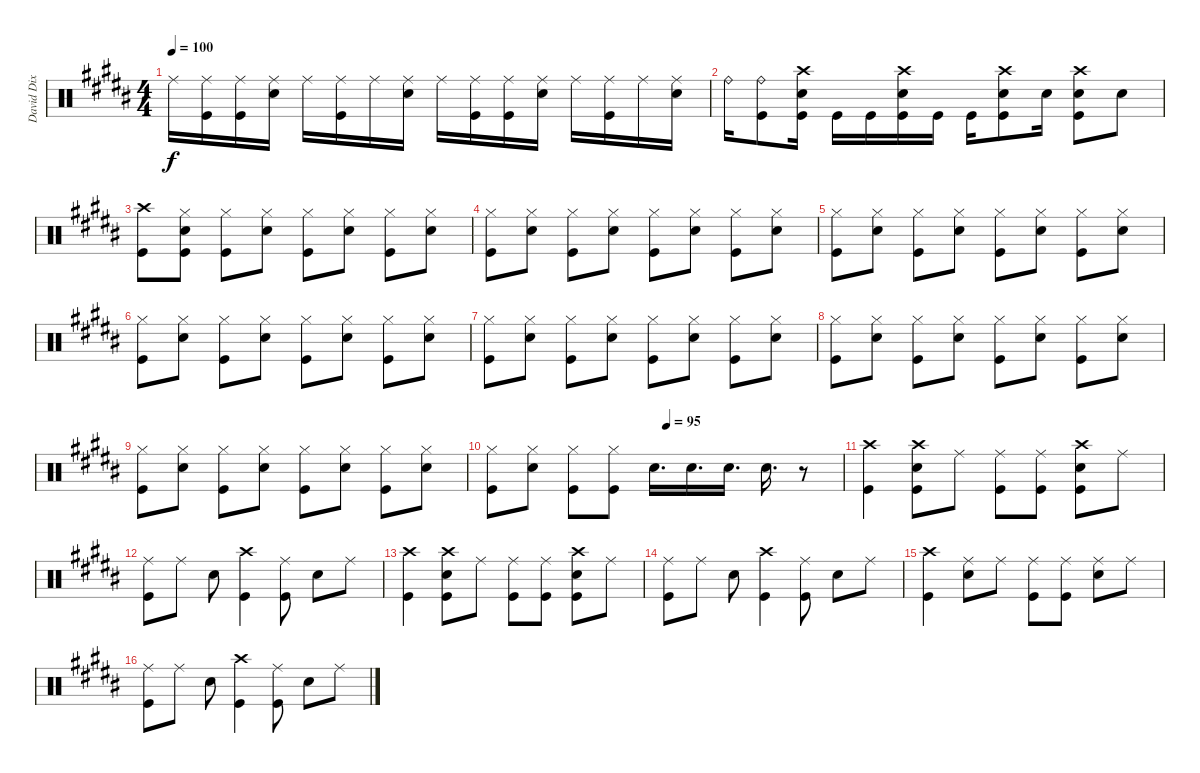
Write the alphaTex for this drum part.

\track ("David Dix Drums" "David Dix ") {instrument percussion}
\staff {score}
\articulation defaults
\ts (4 4)
\tempo 100
\clef neutral
\ks g#minor "Ride (middle)".16{dy f}
("Ride (middle)" "Kick (hit)").16 ("Ride (middle)" "Kick (hit)").16 ("Ride (middle)" "Snare (hit) 2").16 "Ride (middle)".16 ("Ride (middle)" "Kick (hit)").16 "Ride (middle)".16 ("Ride (middle)" "Snare (hit) 2").16 "Ride (middle)".16 ("Ride (middle)" "Kick (hit)").16 ("Ride (middle)" "Kick (hit)").16 ("Ride (middle)" "Snare (hit) 2").16 "Ride (middle)".16 ("Ride (middle)" "Kick (hit)").16 "Ride (middle)".16 ("Ride (middle)" "Snare (hit) 2").16 |
"Ride (bell)".16 ("Ride (bell)" "Kick (hit)").8 ("Crash high (hit)" "Snare (hit) 2" "Kick (hit)").16 "Kick (hit)".16 "Kick (hit)".16 ("Crash high (hit)" "Snare (hit) 2" "Kick (hit)").16 "Kick (hit)".16 "Kick (hit)".16 ("Crash high (hit)" "Snare (hit) 2" "Kick (hit)").8 "Snare (hit) 2".16 ("Crash high (hit)" "Snare (hit) 2" "Kick (hit)").8 "Snare (hit) 2".8 |
("Crash high (hit)" "Kick (hit)").8 ("Hi-Hat (closed)" "Snare (hit) 2" "Kick (hit)").8 ("Hi-Hat (closed)" "Kick (hit)").8 ("Hi-Hat (closed)" "Snare (hit) 2").8 ("Hi-Hat (closed)" "Kick (hit)").8 ("Hi-Hat (closed)" "Snare (hit) 2").8 ("Hi-Hat (closed)" "Kick (hit)").8 ("Hi-Hat (closed)" "Snare (hit) 2").8 |
("Hi-Hat (closed)" "Kick (hit)").8 ("Hi-Hat (closed)" "Snare (hit) 2").8 ("Hi-Hat (closed)" "Kick (hit)").8 ("Hi-Hat (closed)" "Snare (hit) 2").8 ("Hi-Hat (closed)" "Kick (hit)").8 ("Hi-Hat (closed)" "Snare (hit) 2").8 ("Hi-Hat (closed)" "Kick (hit)").8 ("Hi-Hat (closed)" "Snare (hit) 2").8 |
("Hi-Hat (closed)" "Kick (hit)").8 ("Hi-Hat (closed)" "Snare (hit) 2").8 ("Hi-Hat (closed)" "Kick (hit)").8 ("Hi-Hat (closed)" "Snare (hit) 2").8 ("Hi-Hat (closed)" "Kick (hit)").8 ("Hi-Hat (closed)" "Snare (hit) 2").8 ("Hi-Hat (closed)" "Kick (hit)").8 ("Hi-Hat (closed)" "Snare (hit) 2").8 |
("Hi-Hat (closed)" "Kick (hit)").8 ("Hi-Hat (closed)" "Snare (hit) 2").8 ("Hi-Hat (closed)" "Kick (hit)").8 ("Hi-Hat (closed)" "Snare (hit) 2").8 ("Hi-Hat (closed)" "Kick (hit)").8 ("Hi-Hat (closed)" "Snare (hit) 2").8 ("Hi-Hat (closed)" "Kick (hit)").8 ("Hi-Hat (closed)" "Snare (hit) 2").8 |
("Hi-Hat (closed)" "Kick (hit)").8 ("Hi-Hat (closed)" "Snare (hit) 2").8 ("Hi-Hat (closed)" "Kick (hit)").8 ("Hi-Hat (closed)" "Snare (hit) 2").8 ("Hi-Hat (closed)" "Kick (hit)").8 ("Hi-Hat (closed)" "Snare (hit) 2").8 ("Hi-Hat (closed)" "Kick (hit)").8 ("Hi-Hat (closed)" "Snare (hit) 2").8 |
("Hi-Hat (closed)" "Kick (hit)").8 ("Hi-Hat (closed)" "Snare (hit) 2").8 ("Hi-Hat (closed)" "Kick (hit)").8 ("Hi-Hat (closed)" "Snare (hit) 2").8 ("Hi-Hat (closed)" "Kick (hit)").8 ("Hi-Hat (closed)" "Snare (hit) 2").8 ("Hi-Hat (closed)" "Kick (hit)").8 ("Hi-Hat (closed)" "Snare (hit) 2").8 |
("Hi-Hat (closed)" "Kick (hit)").8 ("Hi-Hat (closed)" "Snare (hit) 2").8 ("Hi-Hat (closed)" "Kick (hit)").8 ("Hi-Hat (closed)" "Snare (hit) 2").8 ("Hi-Hat (closed)" "Kick (hit)").8 ("Hi-Hat (closed)" "Snare (hit) 2").8 ("Hi-Hat (closed)" "Kick (hit)").8 ("Hi-Hat (closed)" "Snare (hit) 2").8 |
\tempo (95 0.5)
("Hi-Hat (closed)" "Kick (hit)").8 ("Hi-Hat (closed)" "Snare (hit) 2").8 ("Hi-Hat (closed)" "Kick (hit)").8 ("Hi-Hat (closed)" "Kick (hit)").8 "Snare (hit) 2".16{d} "Snare (hit) 2".16{d} "Snare (hit) 2".16{d} "Snare (hit) 2".16{d} r.8 |
("Crash high (hit)" "Kick (hit)").4{volume 13} ("Crash high (hit)" "Snare (hit) 2" "Kick (hit)").8 "Ride (middle)".8 ("Ride (middle)" "Kick (hit)").8 ("Ride (middle)" "Kick (hit)").8 ("Crash high (hit)" "Snare (hit) 2" "Kick (hit)").8 "Ride (middle)".8 |
("Ride (middle)" "Kick (hit)").8 "Ride (middle)".8 "Snare (hit) 2".8 ("Crash high (hit)" "Kick (hit)").4 ("Ride (middle)" "Kick (hit)").8 "Snare (hit) 2".8 "Ride (middle)".8 |
("Crash high (hit)" "Kick (hit)").4 ("Crash high (hit)" "Snare (hit) 2" "Kick (hit)").8 "Ride (middle)".8 ("Ride (middle)" "Kick (hit)").8 ("Ride (middle)" "Kick (hit)").8 ("Crash high (hit)" "Snare (hit) 2" "Kick (hit)").8 "Ride (middle)".8 |
("Ride (middle)" "Kick (hit)").8 "Ride (middle)".8 "Snare (hit) 2".8 ("Crash high (hit)" "Kick (hit)").4 ("Ride (middle)" "Kick (hit)").8 "Snare (hit) 2".8 "Ride (middle)".8 |
("Crash high (hit)" "Kick (hit)").4 ("Ride (middle)" "Snare (hit) 2").8 "Ride (middle)".8 ("Ride (middle)" "Kick (hit)").8 ("Ride (middle)" "Kick (hit)").8 ("Ride (middle)" "Snare (hit) 2").8 "Ride (middle)".8 |
("Ride (middle)" "Kick (hit)").8 "Ride (middle)".8 "Snare (hit) 2".8 ("Crash high (hit)" "Kick (hit)").4 ("Ride (middle)" "Kick (hit)").8 "Snare (hit) 2".8 "Ride (middle)".8
